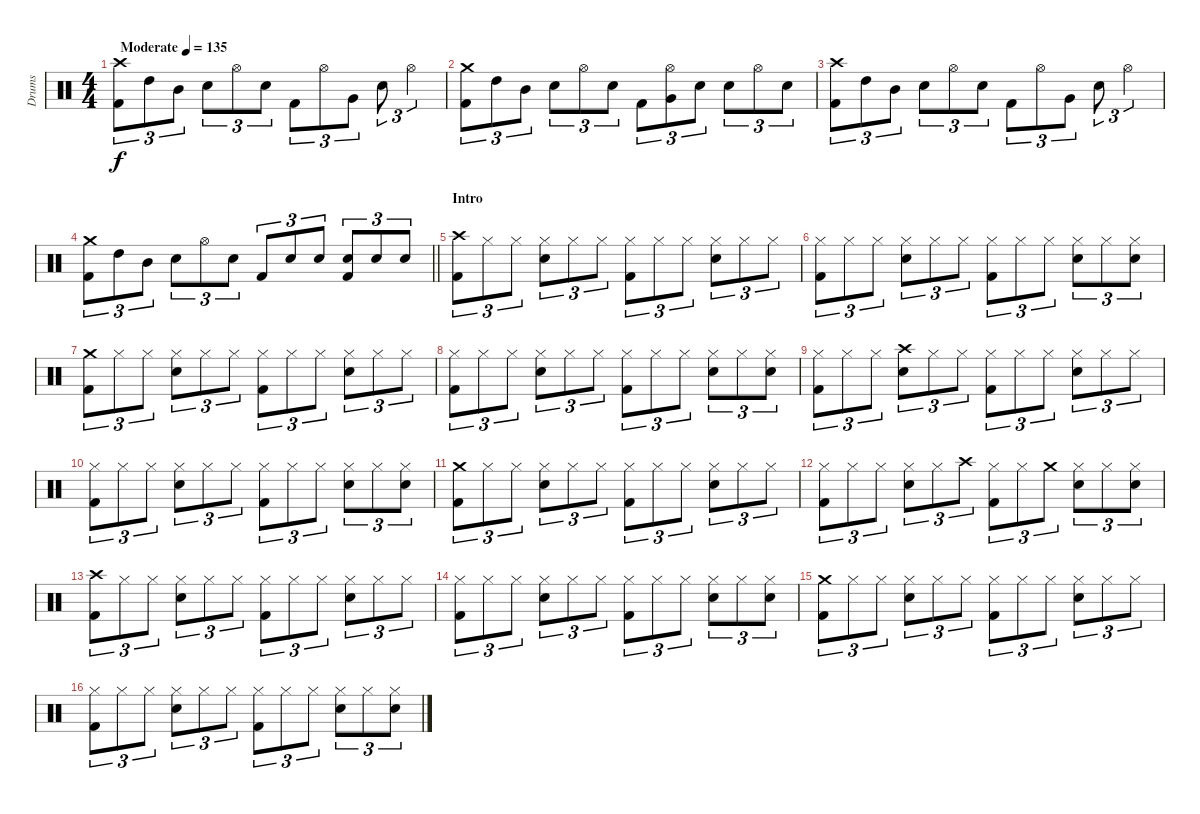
\track ("Drums" "Drums") {instrument percussion}
\staff {score}
\articulation defaults
\ts (4 4)
\tempo (135 "Moderate")
\clef neutral
\ks c
("Crash high (hit)" "Kick (hit) 2").8{tu (3 2) dy f} "High Tom (hit)".8{tu (3 2)} "Mid Tom (hit)".8{tu (3 2)} "Snare (hit) 2".8{tu (3 2)} "Hi-Hat (open)".8{tu (3 2)} "Snare (hit) 2".8{tu (3 2)} "Kick (hit) 2".8{tu (3 2)} "Hi-Hat (open)".8{tu (3 2)} "Very Low Tom (hit)".8{tu (3 2)} "Snare (hit) 2".8{tu (3 2)} "Hi-Hat (open)".4{tu (3 2)} |
("Crash medium (hit)" "Kick (hit) 2").8{tu (3 2)} "High Tom (hit)".8{tu (3 2)} "Mid Tom (hit)".8{tu (3 2)} "Snare (hit) 2".8{tu (3 2)} "Hi-Hat (open)".8{tu (3 2)} "Snare (hit) 2".8{tu (3 2)} "Kick (hit) 2".8{tu (3 2)} ("Hi-Hat (open)" "Very Low Tom (hit)").8{tu (3 2)} "Snare (hit) 2".8{tu (3 2)} "Snare (hit) 2".8{tu (3 2)} "Hi-Hat (open)".8{tu (3 2)} "Snare (hit) 2".8{tu (3 2)} |
("Crash high (hit)" "Kick (hit) 2").8{tu (3 2)} "High Tom (hit)".8{tu (3 2)} "Mid Tom (hit)".8{tu (3 2)} "Snare (hit) 2".8{tu (3 2)} "Hi-Hat (open)".8{tu (3 2)} "Snare (hit) 2".8{tu (3 2)} "Kick (hit) 2".8{tu (3 2)} "Hi-Hat (open)".8{tu (3 2)} "Very Low Tom (hit)".8{tu (3 2)} "Snare (hit) 2".8{tu (3 2)} "Hi-Hat (open)".4{tu (3 2)} |
\barLineRight lightlight
("Crash medium (hit)" "Kick (hit) 2").8{tu (3 2)} "High Tom (hit)".8{tu (3 2)} "Mid Tom (hit)".8{tu (3 2)} "Snare (hit) 2".8{tu (3 2)} "Hi-Hat (open)".8{tu (3 2)} "Snare (hit) 2".8{tu (3 2)} "Kick (hit) 2".8{tu (3 2)} "Snare (hit) 2".8{tu (3 2)} "Snare (hit) 2".8{tu (3 2)} ("Snare (hit) 2" "Kick (hit) 2").8{tu (3 2)} "Snare (hit) 2".8{tu (3 2)} "Snare (hit) 2".8{tu (3 2)} |
\section ("" "Intro")
("Crash high (hit)" "Kick (hit) 2").8{tu (3 2)} "Hi-Hat (closed)".8{tu (3 2)} "Hi-Hat (closed)".8{tu (3 2)} ("Hi-Hat (closed)" "Snare (hit) 2").8{tu (3 2)} "Hi-Hat (closed)".8{tu (3 2)} "Hi-Hat (closed)".8{tu (3 2)} ("Hi-Hat (closed)" "Kick (hit) 2").8{tu (3 2)} "Hi-Hat (closed)".8{tu (3 2)} "Hi-Hat (closed)".8{tu (3 2)} ("Hi-Hat (closed)" "Snare (hit) 2").8{tu (3 2)} "Hi-Hat (closed)".8{tu (3 2)} "Hi-Hat (closed)".8{tu (3 2)} |
("Hi-Hat (closed)" "Kick (hit) 2").8{tu (3 2)} "Hi-Hat (closed)".8{tu (3 2)} "Hi-Hat (closed)".8{tu (3 2)} ("Hi-Hat (closed)" "Snare (hit) 2").8{tu (3 2)} "Hi-Hat (closed)".8{tu (3 2)} "Hi-Hat (closed)".8{tu (3 2)} ("Hi-Hat (closed)" "Kick (hit) 2").8{tu (3 2)} "Hi-Hat (closed)".8{tu (3 2)} "Hi-Hat (closed)".8{tu (3 2)} ("Hi-Hat (closed)" "Snare (hit) 2").8{tu (3 2)} "Hi-Hat (closed)".8{tu (3 2)} ("Hi-Hat (closed)" "Snare (hit) 2").8{tu (3 2)} |
("Crash medium (hit)" "Kick (hit) 2").8{tu (3 2)} "Hi-Hat (closed)".8{tu (3 2)} "Hi-Hat (closed)".8{tu (3 2)} ("Hi-Hat (closed)" "Snare (hit) 2").8{tu (3 2)} "Hi-Hat (closed)".8{tu (3 2)} "Hi-Hat (closed)".8{tu (3 2)} ("Hi-Hat (closed)" "Kick (hit) 2").8{tu (3 2)} "Hi-Hat (closed)".8{tu (3 2)} "Hi-Hat (closed)".8{tu (3 2)} ("Hi-Hat (closed)" "Snare (hit) 2").8{tu (3 2)} "Hi-Hat (closed)".8{tu (3 2)} "Hi-Hat (closed)".8{tu (3 2)} |
("Hi-Hat (closed)" "Kick (hit) 2").8{tu (3 2)} "Hi-Hat (closed)".8{tu (3 2)} "Hi-Hat (closed)".8{tu (3 2)} ("Hi-Hat (closed)" "Snare (hit) 2").8{tu (3 2)} "Hi-Hat (closed)".8{tu (3 2)} "Hi-Hat (closed)".8{tu (3 2)} ("Hi-Hat (closed)" "Kick (hit) 2").8{tu (3 2)} "Hi-Hat (closed)".8{tu (3 2)} "Hi-Hat (closed)".8{tu (3 2)} ("Hi-Hat (closed)" "Snare (hit) 2").8{tu (3 2)} "Hi-Hat (closed)".8{tu (3 2)} ("Hi-Hat (closed)" "Snare (hit) 2").8{tu (3 2)} |
("Hi-Hat (closed)" "Kick (hit) 2").8{tu (3 2)} "Hi-Hat (closed)".8{tu (3 2)} "Hi-Hat (closed)".8{tu (3 2)} ("Crash high (hit)" "Snare (hit) 2").8{tu (3 2)} "Hi-Hat (closed)".8{tu (3 2)} "Hi-Hat (closed)".8{tu (3 2)} ("Hi-Hat (closed)" "Kick (hit) 2").8{tu (3 2)} "Hi-Hat (closed)".8{tu (3 2)} "Hi-Hat (closed)".8{tu (3 2)} ("Hi-Hat (closed)" "Snare (hit) 2").8{tu (3 2)} "Hi-Hat (closed)".8{tu (3 2)} "Hi-Hat (closed)".8{tu (3 2)} |
("Hi-Hat (closed)" "Kick (hit) 2").8{tu (3 2)} "Hi-Hat (closed)".8{tu (3 2)} "Hi-Hat (closed)".8{tu (3 2)} ("Hi-Hat (closed)" "Snare (hit) 2").8{tu (3 2)} "Hi-Hat (closed)".8{tu (3 2)} "Hi-Hat (closed)".8{tu (3 2)} ("Hi-Hat (closed)" "Kick (hit) 2").8{tu (3 2)} "Hi-Hat (closed)".8{tu (3 2)} "Hi-Hat (closed)".8{tu (3 2)} ("Hi-Hat (closed)" "Snare (hit) 2").8{tu (3 2)} "Hi-Hat (closed)".8{tu (3 2)} ("Hi-Hat (closed)" "Snare (hit) 2").8{tu (3 2)} |
("Crash medium (hit)" "Kick (hit) 2").8{tu (3 2)} "Hi-Hat (closed)".8{tu (3 2)} "Hi-Hat (closed)".8{tu (3 2)} ("Hi-Hat (closed)" "Snare (hit) 2").8{tu (3 2)} "Hi-Hat (closed)".8{tu (3 2)} "Hi-Hat (closed)".8{tu (3 2)} ("Hi-Hat (closed)" "Kick (hit) 2").8{tu (3 2)} "Hi-Hat (closed)".8{tu (3 2)} "Hi-Hat (closed)".8{tu (3 2)} ("Hi-Hat (closed)" "Snare (hit) 2").8{tu (3 2)} "Hi-Hat (closed)".8{tu (3 2)} "Hi-Hat (closed)".8{tu (3 2)} |
("Hi-Hat (closed)" "Kick (hit) 2").8{tu (3 2)} "Hi-Hat (closed)".8{tu (3 2)} "Hi-Hat (closed)".8{tu (3 2)} ("Hi-Hat (closed)" "Snare (hit) 2").8{tu (3 2)} "Hi-Hat (closed)".8{tu (3 2)} "Crash high (hit)".8{tu (3 2)} ("Hi-Hat (closed)" "Kick (hit) 2").8{tu (3 2)} "Hi-Hat (closed)".8{tu (3 2)} "Crash medium (hit)".8{tu (3 2)} ("Hi-Hat (closed)" "Snare (hit) 2").8{tu (3 2)} "Hi-Hat (closed)".8{tu (3 2)} ("Hi-Hat (closed)" "Snare (hit) 2").8{tu (3 2)} |
("Crash high (hit)" "Kick (hit) 2").8{tu (3 2)} "Hi-Hat (closed)".8{tu (3 2)} "Hi-Hat (closed)".8{tu (3 2)} ("Hi-Hat (closed)" "Snare (hit) 2").8{tu (3 2)} "Hi-Hat (closed)".8{tu (3 2)} "Hi-Hat (closed)".8{tu (3 2)} ("Hi-Hat (closed)" "Kick (hit) 2").8{tu (3 2)} "Hi-Hat (closed)".8{tu (3 2)} "Hi-Hat (closed)".8{tu (3 2)} ("Hi-Hat (closed)" "Snare (hit) 2").8{tu (3 2)} "Hi-Hat (closed)".8{tu (3 2)} "Hi-Hat (closed)".8{tu (3 2)} |
("Hi-Hat (closed)" "Kick (hit) 2").8{tu (3 2)} "Hi-Hat (closed)".8{tu (3 2)} "Hi-Hat (closed)".8{tu (3 2)} ("Hi-Hat (closed)" "Snare (hit) 2").8{tu (3 2)} "Hi-Hat (closed)".8{tu (3 2)} "Hi-Hat (closed)".8{tu (3 2)} ("Hi-Hat (closed)" "Kick (hit) 2").8{tu (3 2)} "Hi-Hat (closed)".8{tu (3 2)} "Hi-Hat (closed)".8{tu (3 2)} ("Hi-Hat (closed)" "Snare (hit) 2").8{tu (3 2)} "Hi-Hat (closed)".8{tu (3 2)} ("Hi-Hat (closed)" "Snare (hit) 2").8{tu (3 2)} |
("Crash medium (hit)" "Kick (hit) 2").8{tu (3 2)} "Hi-Hat (closed)".8{tu (3 2)} "Hi-Hat (closed)".8{tu (3 2)} ("Hi-Hat (closed)" "Snare (hit) 2").8{tu (3 2)} "Hi-Hat (closed)".8{tu (3 2)} "Hi-Hat (closed)".8{tu (3 2)} ("Hi-Hat (closed)" "Kick (hit) 2").8{tu (3 2)} "Hi-Hat (closed)".8{tu (3 2)} "Hi-Hat (closed)".8{tu (3 2)} ("Hi-Hat (closed)" "Snare (hit) 2").8{tu (3 2)} "Hi-Hat (closed)".8{tu (3 2)} "Hi-Hat (closed)".8{tu (3 2)} |
("Hi-Hat (closed)" "Kick (hit) 2").8{tu (3 2)} "Hi-Hat (closed)".8{tu (3 2)} "Hi-Hat (closed)".8{tu (3 2)} ("Hi-Hat (closed)" "Snare (hit) 2").8{tu (3 2)} "Hi-Hat (closed)".8{tu (3 2)} "Hi-Hat (closed)".8{tu (3 2)} ("Hi-Hat (closed)" "Kick (hit) 2").8{tu (3 2)} "Hi-Hat (closed)".8{tu (3 2)} "Hi-Hat (closed)".8{tu (3 2)} ("Hi-Hat (closed)" "Snare (hit) 2").8{tu (3 2)} "Hi-Hat (closed)".8{tu (3 2)} ("Hi-Hat (closed)" "Snare (hit) 2").8{tu (3 2)}
